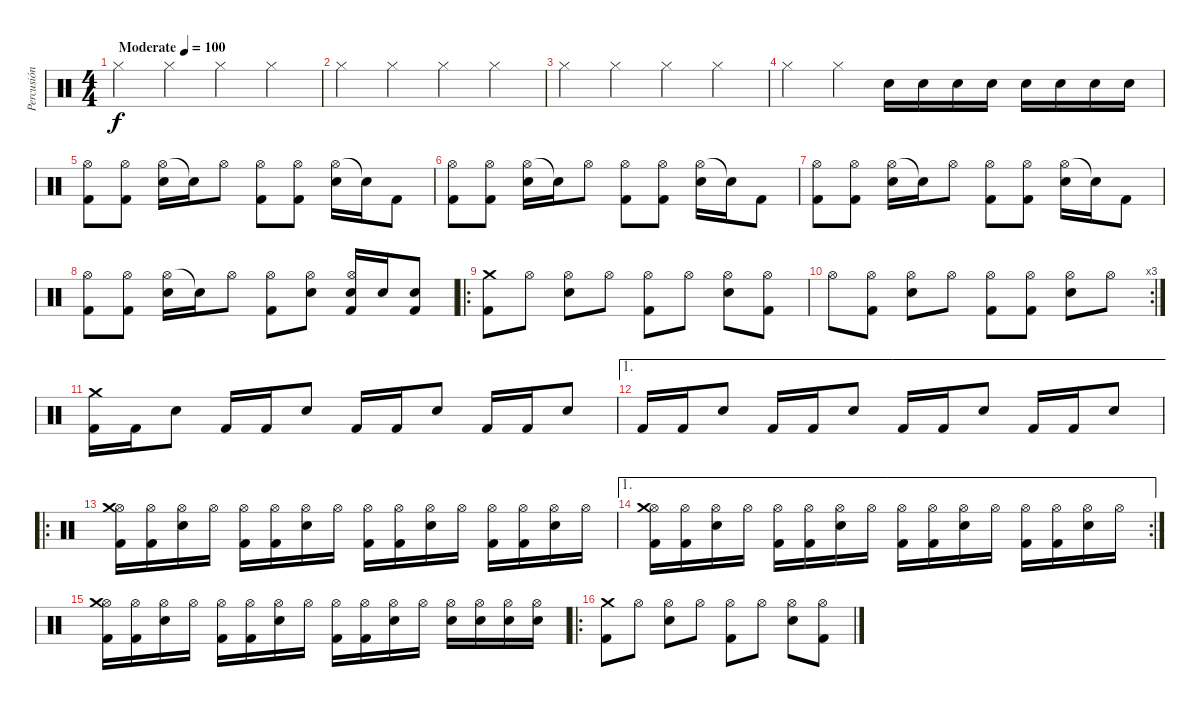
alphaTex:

\track ("Percusión" "Percusión") {instrument percussion}
\staff {score}
\articulation defaults
\ts (4 4)
\tempo (100 "Moderate")
\clef neutral
\ks c "Hi-Hat (closed)".4{dy f} "Hi-Hat (closed)".4 "Hi-Hat (closed)".4 "Hi-Hat (closed)".4
|
"Hi-Hat (closed)".4 "Hi-Hat (closed)".4 "Hi-Hat (closed)".4 "Hi-Hat (closed)".4 |
"Hi-Hat (closed)".4 "Hi-Hat (closed)".4 "Hi-Hat (closed)".4 "Hi-Hat (closed)".4 |
"Hi-Hat (closed)".4 "Hi-Hat (closed)".4 "Snare (hit) 2".16 "Snare (hit) 2".16 "Snare (hit) 2".16 "Snare (hit) 2".16 "Snare (hit) 2".16 "Snare (hit) 2".16 "Snare (hit) 2".16 "Snare (hit) 2".16 |
("Hi-Hat (open)" "Kick (hit) 2").8 ("Hi-Hat (open)" "Kick (hit) 2").8 ("Hi-Hat (open)" "Snare (hit) 2").16 "Snare (hit)"{t}.16 "Hi-Hat (open)".8 ("Hi-Hat (open)" "Kick (hit) 2").8 ("Hi-Hat (open)" "Kick (hit) 2").8 ("Hi-Hat (open)" "Snare (hit) 2").16 "Snare (hit)"{t}.16 "Kick (hit) 2".8 |
("Hi-Hat (open)" "Kick (hit) 2").8 ("Hi-Hat (open)" "Kick (hit) 2").8 ("Hi-Hat (open)" "Snare (hit) 2").16 "Snare (hit)"{t}.16 "Hi-Hat (open)".8 ("Hi-Hat (open)" "Kick (hit) 2").8 ("Hi-Hat (open)" "Kick (hit) 2").8 ("Hi-Hat (open)" "Snare (hit) 2").16 "Snare (hit)"{t}.16 "Kick (hit) 2".8 |
("Hi-Hat (open)" "Kick (hit) 2").8 ("Hi-Hat (open)" "Kick (hit) 2").8 ("Hi-Hat (open)" "Snare (hit) 2").16 "Snare (hit)"{t}.16 "Hi-Hat (open)".8 ("Hi-Hat (open)" "Kick (hit) 2").8 ("Hi-Hat (open)" "Kick (hit) 2").8 ("Hi-Hat (open)" "Snare (hit) 2").16 "Snare (hit)"{t}.16 "Kick (hit) 2".8 |
("Hi-Hat (open)" "Kick (hit) 2").8 ("Hi-Hat (open)" "Kick (hit) 2").8 ("Hi-Hat (open)" "Snare (hit) 2").16 "Snare (hit)"{t}.16 "Hi-Hat (open)".8 ("Hi-Hat (open)" "Kick (hit) 2").8 ("Hi-Hat (open)" "Snare (hit) 2").8 ("Hi-Hat (open)" "Snare (hit) 2" "Kick (hit) 2").16 "Snare (hit) 2".16 ("Snare (hit) 2" "Kick (hit) 2").8 |
\ro
("Kick (hit) 2" "Crash medium (hit)").8 "Hi-Hat (open)".8 ("Snare (hit) 2" "Hi-Hat (open)").8 "Hi-Hat (open)".8 ("Kick (hit) 2" "Hi-Hat (open)").8 "Hi-Hat (open)".8 ("Snare (hit) 2" "Hi-Hat (open)").8 ("Kick (hit) 2" "Hi-Hat (open)").8 |
\rc 3 "Hi-Hat (open)".8
("Kick (hit) 2" "Hi-Hat (open)").8 ("Snare (hit) 2" "Hi-Hat (open)").8 "Hi-Hat (open)".8 ("Kick (hit) 2" "Hi-Hat (open)").8 ("Kick (hit) 2" "Hi-Hat (open)").8 ("Snare (hit) 2" "Hi-Hat (open)").8 "Hi-Hat (open)".8 |
("Kick (hit) 2" "Crash medium (hit)").16 "Kick (hit) 2".16 "Snare (hit) 2".8 "Kick (hit) 2".16 "Kick (hit) 2".16 "Snare (hit) 2".8 "Kick (hit) 2".16 "Kick (hit) 2".16 "Snare (hit) 2".8 "Kick (hit) 2".16 "Kick (hit) 2".16 "Snare (hit) 2".8 |
\ae 1 "Kick (hit) 2".16 "Kick (hit) 2".16 "Snare (hit) 2".8 "Kick (hit) 2".16 "Kick (hit) 2".16 "Snare (hit) 2".8 "Kick (hit) 2".16 "Kick (hit) 2".16 "Snare (hit) 2".8 "Kick (hit) 2".16 "Kick (hit) 2".16 "Snare (hit) 2".8
|
\ro
("Kick (hit) 2" "Hi-Hat (open)" "Crash medium (hit)").16 ("Kick (hit) 2" "Hi-Hat (open)").16 ("Snare (hit) 2" "Hi-Hat (open)").16 "Hi-Hat (open)".16 ("Kick (hit) 2" "Hi-Hat (open)").16 ("Kick (hit) 2" "Hi-Hat (open)").16 ("Snare (hit) 2" "Hi-Hat (open)").16 "Hi-Hat (open)".16 ("Kick (hit) 2" "Hi-Hat (open)").16 ("Kick (hit) 2" "Hi-Hat (open)").16 ("Snare (hit) 2" "Hi-Hat (open)").16 "Hi-Hat (open)".16 ("Kick (hit) 2" "Hi-Hat (open)").16 ("Kick (hit) 2" "Hi-Hat (open)").16 ("Snare (hit) 2" "Hi-Hat (open)").16 "Hi-Hat (open)".16 |
\ae 1
\rc 2
("Kick (hit) 2" "Hi-Hat (open)" "Crash medium (hit)").16 ("Kick (hit) 2" "Hi-Hat (open)").16 ("Snare (hit) 2" "Hi-Hat (open)").16 "Hi-Hat (open)".16 ("Kick (hit) 2" "Hi-Hat (open)").16 ("Kick (hit) 2" "Hi-Hat (open)").16 ("Snare (hit) 2" "Hi-Hat (open)").16 "Hi-Hat (open)".16 ("Kick (hit) 2" "Hi-Hat (open)").16 ("Kick (hit) 2" "Hi-Hat (open)").16 ("Snare (hit) 2" "Hi-Hat (open)").16 "Hi-Hat (open)".16 ("Kick (hit) 2" "Hi-Hat (open)").16 ("Kick (hit) 2" "Hi-Hat (open)").16 ("Snare (hit) 2" "Hi-Hat (open)").16 "Hi-Hat (open)".16 |
("Kick (hit) 2" "Hi-Hat (open)" "Crash medium (hit)").16 ("Kick (hit) 2" "Hi-Hat (open)").16 ("Snare (hit) 2" "Hi-Hat (open)").16 "Hi-Hat (open)".16 ("Kick (hit) 2" "Hi-Hat (open)").16 ("Kick (hit) 2" "Hi-Hat (open)").16 ("Snare (hit) 2" "Hi-Hat (open)").16 "Hi-Hat (open)".16 ("Kick (hit) 2" "Hi-Hat (open)").16 ("Kick (hit) 2" "Hi-Hat (open)").16 ("Snare (hit) 2" "Hi-Hat (open)").16 "Hi-Hat (open)".16 ("Snare (hit) 2" "Hi-Hat (open)").16 ("Snare (hit) 2" "Hi-Hat (open)").16 ("Snare (hit) 2" "Hi-Hat (open)").16 ("Snare (hit) 2" "Hi-Hat (open)").16 |
\ro
("Kick (hit) 2" "Crash medium (hit)").8 "Hi-Hat (open)".8 ("Snare (hit) 2" "Hi-Hat (open)").8 "Hi-Hat (open)".8 ("Kick (hit) 2" "Hi-Hat (open)").8 "Hi-Hat (open)".8 ("Snare (hit) 2" "Hi-Hat (open)").8 ("Kick (hit) 2" "Hi-Hat (open)").8
